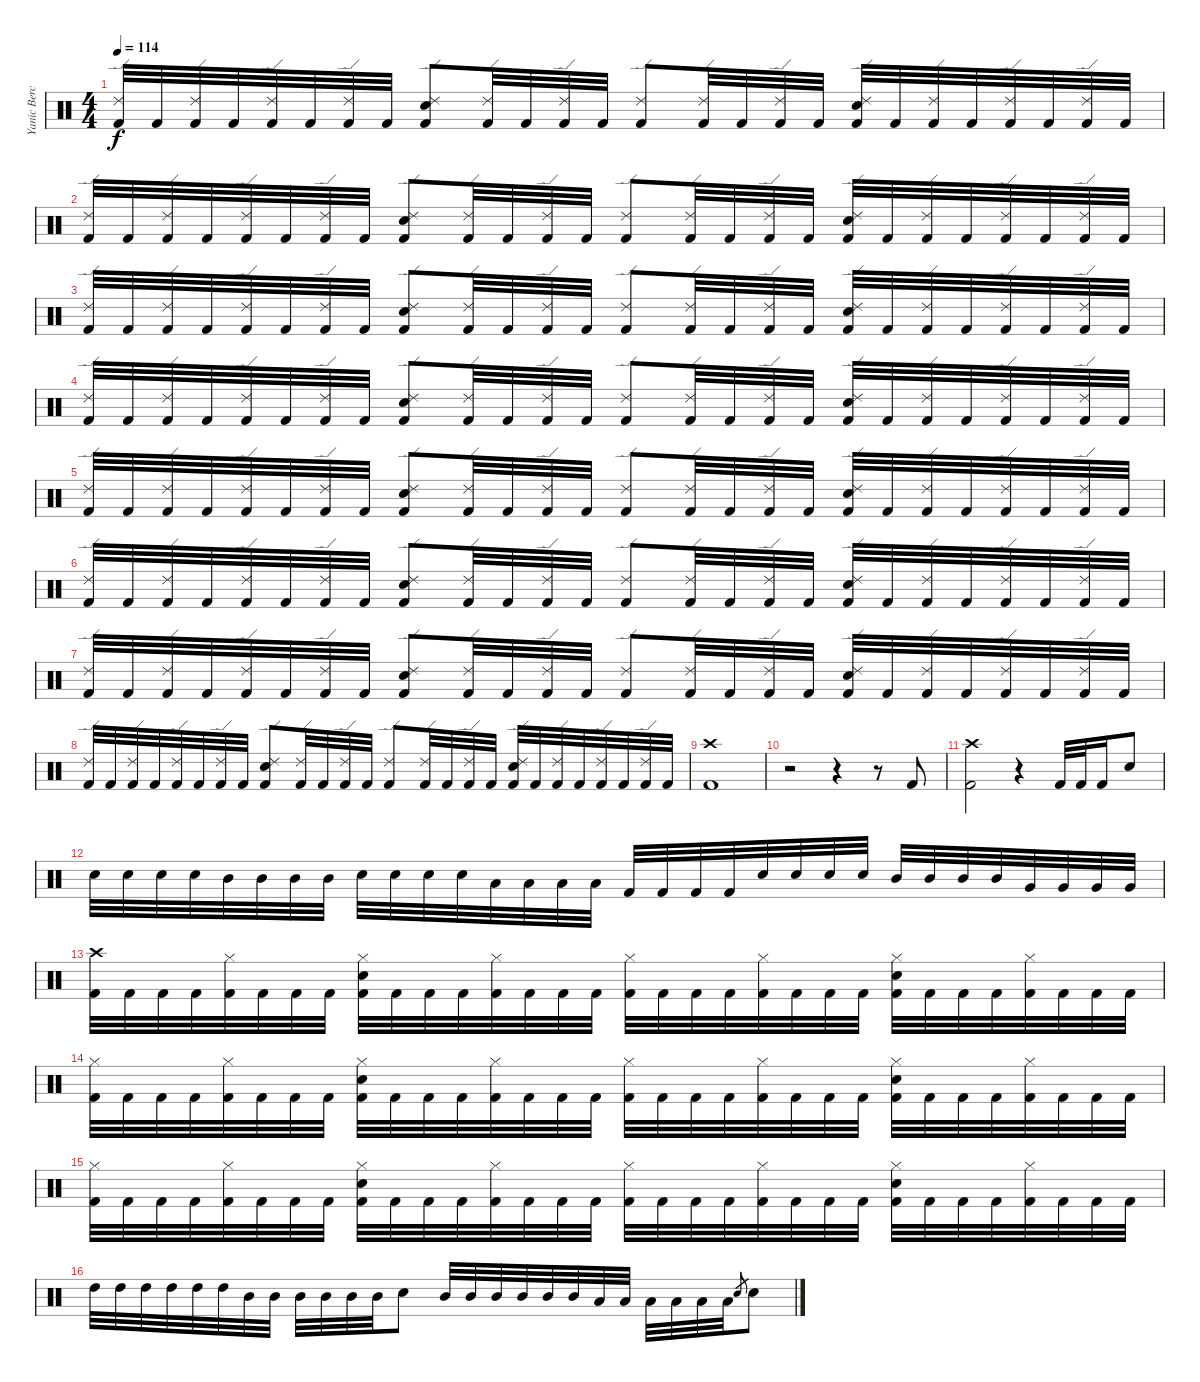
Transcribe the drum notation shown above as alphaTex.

\track ("Yanic Bercier" "Yanic Berc") {instrument percussion}
\staff {score}
\articulation defaults
\ts (4 4)
\tempo 114
\clef neutral
\ks c
("Ride (edge) 2" "Kick (hit) 2").32{dy f} "Kick (hit) 2".32 ("Ride (edge) 2" "Kick (hit) 2").32 "Kick (hit) 2".32 ("Ride (edge) 2" "Kick (hit) 2").32 "Kick (hit) 2".32 ("Ride (edge) 2" "Kick (hit) 2").32 "Kick (hit) 2".32 ("Ride (edge) 2" "Electric Snare (hit)" "Kick (hit) 2").8 ("Ride (edge) 2" "Kick (hit) 2").32 "Kick (hit) 2".32 ("Ride (edge) 2" "Kick (hit) 2").32 "Kick (hit) 2".32 ("Ride (edge) 2" "Kick (hit) 2").8 ("Ride (edge) 2" "Kick (hit) 2").32 "Kick (hit) 2".32 ("Ride (edge) 2" "Kick (hit) 2").32 "Kick (hit) 2".32 ("Ride (edge) 2" "Electric Snare (hit)" "Kick (hit) 2").32 "Kick (hit) 2".32 ("Ride (edge) 2" "Kick (hit) 2").32 "Kick (hit) 2".32 ("Ride (edge) 2" "Kick (hit) 2").32 "Kick (hit) 2".32 ("Ride (edge) 2" "Kick (hit) 2").32 "Kick (hit) 2".32 |
("Ride (edge) 2" "Kick (hit) 2").32 "Kick (hit) 2".32 ("Ride (edge) 2" "Kick (hit) 2").32 "Kick (hit) 2".32 ("Ride (edge) 2" "Kick (hit) 2").32 "Kick (hit) 2".32 ("Ride (edge) 2" "Kick (hit) 2").32 "Kick (hit) 2".32 ("Ride (edge) 2" "Electric Snare (hit)" "Kick (hit) 2").8 ("Ride (edge) 2" "Kick (hit) 2").32 "Kick (hit) 2".32 ("Ride (edge) 2" "Kick (hit) 2").32 "Kick (hit) 2".32 ("Ride (edge) 2" "Kick (hit) 2").8 ("Ride (edge) 2" "Kick (hit) 2").32 "Kick (hit) 2".32 ("Ride (edge) 2" "Kick (hit) 2").32 "Kick (hit) 2".32 ("Ride (edge) 2" "Electric Snare (hit)" "Kick (hit) 2").32 "Kick (hit) 2".32 ("Ride (edge) 2" "Kick (hit) 2").32 "Kick (hit) 2".32 ("Ride (edge) 2" "Kick (hit) 2").32 "Kick (hit) 2".32 ("Ride (edge) 2" "Kick (hit) 2").32 "Kick (hit) 2".32 |
("Ride (edge) 2" "Kick (hit) 2").32 "Kick (hit) 2".32 ("Ride (edge) 2" "Kick (hit) 2").32 "Kick (hit) 2".32 ("Ride (edge) 2" "Kick (hit) 2").32 "Kick (hit) 2".32 ("Ride (edge) 2" "Kick (hit) 2").32 "Kick (hit) 2".32 ("Ride (edge) 2" "Electric Snare (hit)" "Kick (hit) 2").8 ("Ride (edge) 2" "Kick (hit) 2").32 "Kick (hit) 2".32 ("Ride (edge) 2" "Kick (hit) 2").32 "Kick (hit) 2".32 ("Ride (edge) 2" "Kick (hit) 2").8 ("Ride (edge) 2" "Kick (hit) 2").32 "Kick (hit) 2".32 ("Ride (edge) 2" "Kick (hit) 2").32 "Kick (hit) 2".32 ("Ride (edge) 2" "Electric Snare (hit)" "Kick (hit) 2").32 "Kick (hit) 2".32 ("Ride (edge) 2" "Kick (hit) 2").32 "Kick (hit) 2".32 ("Ride (edge) 2" "Kick (hit) 2").32 "Kick (hit) 2".32 ("Ride (edge) 2" "Kick (hit) 2").32 "Kick (hit) 2".32 |
("Ride (edge) 2" "Kick (hit) 2").32 "Kick (hit) 2".32 ("Ride (edge) 2" "Kick (hit) 2").32 "Kick (hit) 2".32 ("Ride (edge) 2" "Kick (hit) 2").32 "Kick (hit) 2".32 ("Ride (edge) 2" "Kick (hit) 2").32 "Kick (hit) 2".32 ("Ride (edge) 2" "Electric Snare (hit)" "Kick (hit) 2").8 ("Ride (edge) 2" "Kick (hit) 2").32 "Kick (hit) 2".32 ("Ride (edge) 2" "Kick (hit) 2").32 "Kick (hit) 2".32 ("Ride (edge) 2" "Kick (hit) 2").8 ("Ride (edge) 2" "Kick (hit) 2").32 "Kick (hit) 2".32 ("Ride (edge) 2" "Kick (hit) 2").32 "Kick (hit) 2".32 ("Ride (edge) 2" "Electric Snare (hit)" "Kick (hit) 2").32 "Kick (hit) 2".32 ("Ride (edge) 2" "Kick (hit) 2").32 "Kick (hit) 2".32 ("Ride (edge) 2" "Kick (hit) 2").32 "Kick (hit) 2".32 ("Ride (edge) 2" "Kick (hit) 2").32 "Kick (hit) 2".32 |
("Ride (edge) 2" "Kick (hit) 2").32 "Kick (hit) 2".32 ("Ride (edge) 2" "Kick (hit) 2").32 "Kick (hit) 2".32 ("Ride (edge) 2" "Kick (hit) 2").32 "Kick (hit) 2".32 ("Ride (edge) 2" "Kick (hit) 2").32 "Kick (hit) 2".32 ("Ride (edge) 2" "Electric Snare (hit)" "Kick (hit) 2").8 ("Ride (edge) 2" "Kick (hit) 2").32 "Kick (hit) 2".32 ("Ride (edge) 2" "Kick (hit) 2").32 "Kick (hit) 2".32 ("Ride (edge) 2" "Kick (hit) 2").8 ("Ride (edge) 2" "Kick (hit) 2").32 "Kick (hit) 2".32 ("Ride (edge) 2" "Kick (hit) 2").32 "Kick (hit) 2".32 ("Ride (edge) 2" "Electric Snare (hit)" "Kick (hit) 2").32 "Kick (hit) 2".32 ("Ride (edge) 2" "Kick (hit) 2").32 "Kick (hit) 2".32 ("Ride (edge) 2" "Kick (hit) 2").32 "Kick (hit) 2".32 ("Ride (edge) 2" "Kick (hit) 2").32 "Kick (hit) 2".32 |
("Ride (edge) 2" "Kick (hit) 2").32 "Kick (hit) 2".32 ("Ride (edge) 2" "Kick (hit) 2").32 "Kick (hit) 2".32 ("Ride (edge) 2" "Kick (hit) 2").32 "Kick (hit) 2".32 ("Ride (edge) 2" "Kick (hit) 2").32 "Kick (hit) 2".32 ("Ride (edge) 2" "Electric Snare (hit)" "Kick (hit) 2").8 ("Ride (edge) 2" "Kick (hit) 2").32 "Kick (hit) 2".32 ("Ride (edge) 2" "Kick (hit) 2").32 "Kick (hit) 2".32 ("Ride (edge) 2" "Kick (hit) 2").8 ("Ride (edge) 2" "Kick (hit) 2").32 "Kick (hit) 2".32 ("Ride (edge) 2" "Kick (hit) 2").32 "Kick (hit) 2".32 ("Ride (edge) 2" "Electric Snare (hit)" "Kick (hit) 2").32 "Kick (hit) 2".32 ("Ride (edge) 2" "Kick (hit) 2").32 "Kick (hit) 2".32 ("Ride (edge) 2" "Kick (hit) 2").32 "Kick (hit) 2".32 ("Ride (edge) 2" "Kick (hit) 2").32 "Kick (hit) 2".32 |
("Ride (edge) 2" "Kick (hit) 2").32 "Kick (hit) 2".32 ("Ride (edge) 2" "Kick (hit) 2").32 "Kick (hit) 2".32 ("Ride (edge) 2" "Kick (hit) 2").32 "Kick (hit) 2".32 ("Ride (edge) 2" "Kick (hit) 2").32 "Kick (hit) 2".32 ("Ride (edge) 2" "Electric Snare (hit)" "Kick (hit) 2").8 ("Ride (edge) 2" "Kick (hit) 2").32 "Kick (hit) 2".32 ("Ride (edge) 2" "Kick (hit) 2").32 "Kick (hit) 2".32 ("Ride (edge) 2" "Kick (hit) 2").8 ("Ride (edge) 2" "Kick (hit) 2").32 "Kick (hit) 2".32 ("Ride (edge) 2" "Kick (hit) 2").32 "Kick (hit) 2".32 ("Ride (edge) 2" "Electric Snare (hit)" "Kick (hit) 2").32 "Kick (hit) 2".32 ("Ride (edge) 2" "Kick (hit) 2").32 "Kick (hit) 2".32 ("Ride (edge) 2" "Kick (hit) 2").32 "Kick (hit) 2".32 ("Ride (edge) 2" "Kick (hit) 2").32 "Kick (hit) 2".32 |
("Ride (edge) 2" "Kick (hit) 2").32 "Kick (hit) 2".32 ("Ride (edge) 2" "Kick (hit) 2").32 "Kick (hit) 2".32 ("Ride (edge) 2" "Kick (hit) 2").32 "Kick (hit) 2".32 ("Ride (edge) 2" "Kick (hit) 2").32 "Kick (hit) 2".32 ("Ride (edge) 2" "Electric Snare (hit)" "Kick (hit) 2").8 ("Ride (edge) 2" "Kick (hit) 2").32 "Kick (hit) 2".32 ("Ride (edge) 2" "Kick (hit) 2").32 "Kick (hit) 2".32 ("Ride (edge) 2" "Kick (hit) 2").8 ("Ride (edge) 2" "Kick (hit) 2").32 "Kick (hit) 2".32 ("Ride (edge) 2" "Kick (hit) 2").32 "Kick (hit) 2".32 ("Ride (edge) 2" "Electric Snare (hit)" "Kick (hit) 2").32 "Kick (hit) 2".32 ("Ride (edge) 2" "Kick (hit) 2").32 "Kick (hit) 2".32 ("Ride (edge) 2" "Kick (hit) 2").32 "Kick (hit) 2".32 ("Ride (edge) 2" "Kick (hit) 2").32 "Kick (hit) 2".32 |
("Crash high (hit)" "Kick (hit) 2").1 |
r.2 r.4 r.8 "Kick (hit) 2".8 |
("Crash high (hit)" "Kick (hit) 2").2 r.4 "Kick (hit) 2".32 "Kick (hit) 2".32 "Kick (hit) 2".16 "Electric Snare (hit)".8 |
"Electric Snare (hit)".32 "Electric Snare (hit)".32 "Electric Snare (hit)".32 "Electric Snare (hit)".32 "Mid Tom (hit)".32 "Mid Tom (hit)".32 "Mid Tom (hit)".32 "Mid Tom (hit)".32 "Electric Snare (hit)".32 "Electric Snare (hit)".32 "Electric Snare (hit)".32 "Electric Snare (hit)".32 "Low Tom (hit)".32 "Low Tom (hit)".32 "Low Tom (hit)".32 "Low Tom (hit)".32 "Kick (hit) 2".32 "Kick (hit) 2".32 "Kick (hit) 2".32 "Kick (hit) 2".32 "Electric Snare (hit)".32 "Electric Snare (hit)".32 "Electric Snare (hit)".32 "Electric Snare (hit)".32 "Mid Tom (hit)".32 "Mid Tom (hit)".32 "Mid Tom (hit)".32 "Mid Tom (hit)".32 "Very Low Tom (hit)".32 "Very Low Tom (hit)".32 "Very Low Tom (hit)".32 "Very Low Tom (hit)".32 |
("Crash high (hit)" "Kick (hit) 2").32 "Kick (hit) 2".32 "Kick (hit) 2".32 "Kick (hit) 2".32 ("Hi-Hat (closed)" "Kick (hit) 2").32 "Kick (hit) 2".32 "Kick (hit) 2".32 "Kick (hit) 2".32 ("Hi-Hat (closed)" "Electric Snare (hit)" "Kick (hit) 2").32 "Kick (hit) 2".32 "Kick (hit) 2".32 "Kick (hit) 2".32 ("Hi-Hat (closed)" "Kick (hit) 2").32 "Kick (hit) 2".32 "Kick (hit) 2".32 "Kick (hit) 2".32 ("Hi-Hat (closed)" "Kick (hit) 2").32 "Kick (hit) 2".32 "Kick (hit) 2".32 "Kick (hit) 2".32 ("Hi-Hat (closed)" "Kick (hit) 2").32 "Kick (hit) 2".32 "Kick (hit) 2".32 "Kick (hit) 2".32 ("Hi-Hat (closed)" "Electric Snare (hit)" "Kick (hit) 2").32 "Kick (hit) 2".32 "Kick (hit) 2".32 "Kick (hit) 2".32 ("Hi-Hat (closed)" "Kick (hit) 2").32 "Kick (hit) 2".32 "Kick (hit) 2".32 "Kick (hit) 2".32 |
("Hi-Hat (closed)" "Kick (hit) 2").32 "Kick (hit) 2".32 "Kick (hit) 2".32 "Kick (hit) 2".32 ("Hi-Hat (closed)" "Kick (hit) 2").32 "Kick (hit) 2".32 "Kick (hit) 2".32 "Kick (hit) 2".32 ("Hi-Hat (closed)" "Electric Snare (hit)" "Kick (hit) 2").32 "Kick (hit) 2".32 "Kick (hit) 2".32 "Kick (hit) 2".32 ("Hi-Hat (closed)" "Kick (hit) 2").32 "Kick (hit) 2".32 "Kick (hit) 2".32 "Kick (hit) 2".32 ("Hi-Hat (closed)" "Kick (hit) 2").32 "Kick (hit) 2".32 "Kick (hit) 2".32 "Kick (hit) 2".32 ("Hi-Hat (closed)" "Kick (hit) 2").32 "Kick (hit) 2".32 "Kick (hit) 2".32 "Kick (hit) 2".32 ("Hi-Hat (closed)" "Electric Snare (hit)" "Kick (hit) 2").32 "Kick (hit) 2".32 "Kick (hit) 2".32 "Kick (hit) 2".32 ("Hi-Hat (closed)" "Kick (hit) 2").32 "Kick (hit) 2".32 "Kick (hit) 2".32 "Kick (hit) 2".32 |
("Hi-Hat (closed)" "Kick (hit) 2").32 "Kick (hit) 2".32 "Kick (hit) 2".32 "Kick (hit) 2".32 ("Hi-Hat (closed)" "Kick (hit) 2").32 "Kick (hit) 2".32 "Kick (hit) 2".32 "Kick (hit) 2".32 ("Hi-Hat (closed)" "Electric Snare (hit)" "Kick (hit) 2").32 "Kick (hit) 2".32 "Kick (hit) 2".32 "Kick (hit) 2".32 ("Hi-Hat (closed)" "Kick (hit) 2").32 "Kick (hit) 2".32 "Kick (hit) 2".32 "Kick (hit) 2".32 ("Hi-Hat (closed)" "Kick (hit) 2").32 "Kick (hit) 2".32 "Kick (hit) 2".32 "Kick (hit) 2".32 ("Hi-Hat (closed)" "Kick (hit) 2").32 "Kick (hit) 2".32 "Kick (hit) 2".32 "Kick (hit) 2".32 ("Hi-Hat (closed)" "Electric Snare (hit)" "Kick (hit) 2").32 "Kick (hit) 2".32 "Kick (hit) 2".32 "Kick (hit) 2".32 ("Hi-Hat (closed)" "Kick (hit) 2").32 "Kick (hit) 2".32 "Kick (hit) 2".32 "Kick (hit) 2".32 |
"High Tom (hit)".32 "High Tom (hit)".32 "High Tom (hit)".32 "High Tom (hit)".32 "High Tom (hit)".32 "High Tom (hit)".32 "Mid Tom (hit)".32 "Mid Tom (hit)".32 "Mid Tom (hit)".32 "Mid Tom (hit)".32 "Mid Tom (hit)".32 "Mid Tom (hit)".32 "Electric Snare (hit)".8 "Mid Tom (hit)".32 "Mid Tom (hit)".32 "Mid Tom (hit)".32 "Mid Tom (hit)".32 "Mid Tom (hit)".32 "Mid Tom (hit)".32 "Low Tom (hit)".32 "Low Tom (hit)".32 "Low Tom (hit)".32 "Low Tom (hit)".32 "Low Tom (hit)".32 "Low Tom (hit)".32 "Electric Snare (hit)".8{gr} "Electric Snare (hit)".8
